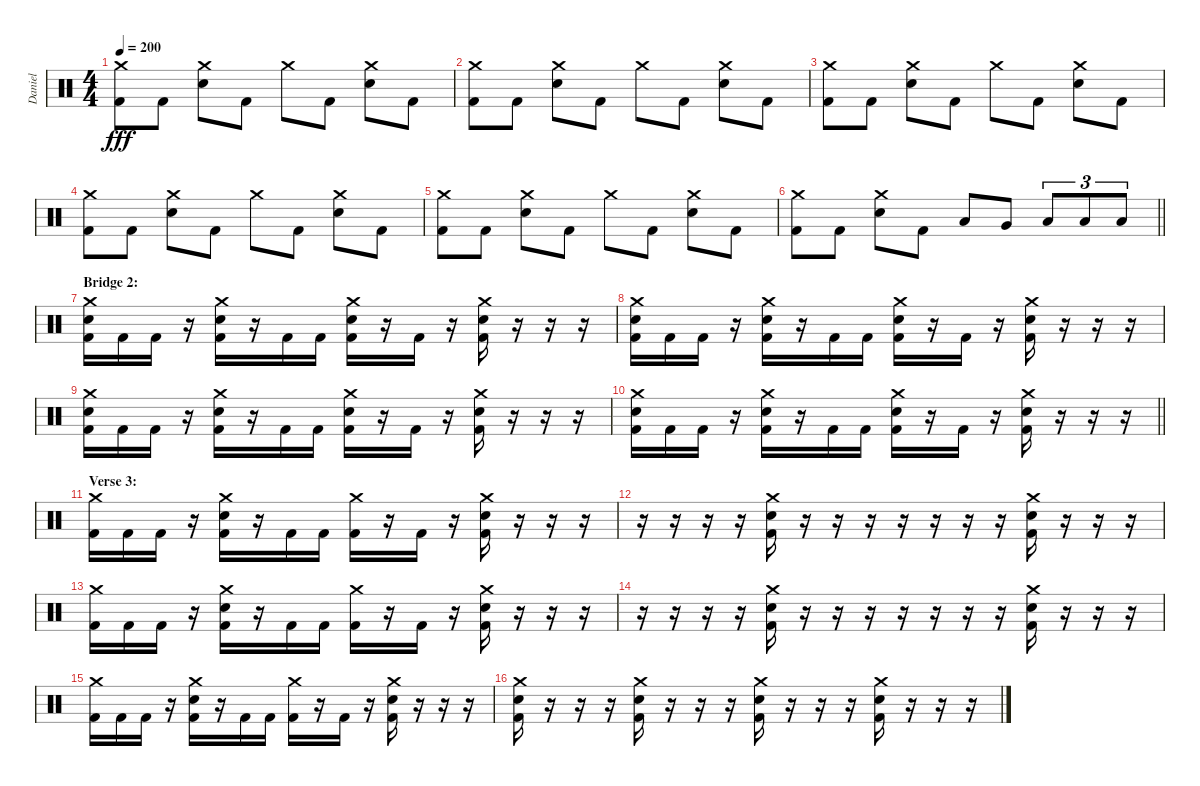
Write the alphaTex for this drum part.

\track ("Daniel" "Daniel") {instrument percussion}
\staff {score}
\articulation defaults
\ts (4 4)
\tempo 200
\clef neutral
\ks c
("Crash medium (hit)" "Kick (hit) 2").8{dy fff} "Kick (hit) 2".8 ("Crash medium (hit)" "Electric Snare (hit)").8 "Kick (hit) 2".8 "Crash medium (hit)".8 "Kick (hit) 2".8 ("Crash medium (hit)" "Electric Snare (hit)").8 "Kick (hit) 2".8 |
("Crash medium (hit)" "Kick (hit) 2").8 "Kick (hit) 2".8 ("Crash medium (hit)" "Electric Snare (hit)").8 "Kick (hit) 2".8 "Crash medium (hit)".8 "Kick (hit) 2".8 ("Crash medium (hit)" "Electric Snare (hit)").8 "Kick (hit) 2".8 |
("Crash medium (hit)" "Kick (hit) 2").8 "Kick (hit) 2".8 ("Crash medium (hit)" "Electric Snare (hit)").8 "Kick (hit) 2".8 "Crash medium (hit)".8 "Kick (hit) 2".8 ("Crash medium (hit)" "Electric Snare (hit)").8 "Kick (hit) 2".8 |
("Crash medium (hit)" "Kick (hit) 2").8 "Kick (hit) 2".8 ("Crash medium (hit)" "Electric Snare (hit)").8 "Kick (hit) 2".8 "Crash medium (hit)".8 "Kick (hit) 2".8 ("Crash medium (hit)" "Electric Snare (hit)").8 "Kick (hit) 2".8 |
("Crash medium (hit)" "Kick (hit) 2").8 "Kick (hit) 2".8 ("Crash medium (hit)" "Electric Snare (hit)").8 "Kick (hit) 2".8 "Crash medium (hit)".8 "Kick (hit) 2".8 ("Crash medium (hit)" "Electric Snare (hit)").8 "Kick (hit) 2".8 |
\barLineRight lightlight
("Crash medium (hit)" "Kick (hit) 2").8 "Kick (hit) 2".8 ("Crash medium (hit)" "Electric Snare (hit)").8 "Kick (hit) 2".8 "Low Tom (hit)".8 "Very Low Tom (hit)".8 "Low Floor Tom (hit)".8{tu (3 2)} "Low Floor Tom (hit)".8{tu (3 2)} "Low Floor Tom (hit)".8{tu (3 2)} |
\section ("" "Bridge 2:")
("Crash medium (hit)" "Electric Snare (hit)" "Kick (hit) 2").16 "Kick (hit) 2".16 "Kick (hit) 2".16 r.16 ("Crash medium (hit)" "Electric Snare (hit)" "Kick (hit) 2").16 r.16 "Kick (hit) 2".16 "Kick (hit) 2".16 ("Crash medium (hit)" "Electric Snare (hit)" "Kick (hit) 2").16 r.16 "Kick (hit) 2".16 r.16 ("Crash medium (hit)" "Electric Snare (hit)" "Kick (hit) 2").16 r.16 r.16 r.16 |
("Crash medium (hit)" "Electric Snare (hit)" "Kick (hit) 2").16 "Kick (hit) 2".16 "Kick (hit) 2".16 r.16 ("Crash medium (hit)" "Electric Snare (hit)" "Kick (hit) 2").16 r.16 "Kick (hit) 2".16 "Kick (hit) 2".16 ("Crash medium (hit)" "Electric Snare (hit)" "Kick (hit) 2").16 r.16 "Kick (hit) 2".16 r.16 ("Crash medium (hit)" "Electric Snare (hit)" "Kick (hit) 2").16 r.16 r.16 r.16 |
("Crash medium (hit)" "Electric Snare (hit)" "Kick (hit) 2").16 "Kick (hit) 2".16 "Kick (hit) 2".16 r.16 ("Crash medium (hit)" "Electric Snare (hit)" "Kick (hit) 2").16 r.16 "Kick (hit) 2".16 "Kick (hit) 2".16 ("Crash medium (hit)" "Electric Snare (hit)" "Kick (hit) 2").16 r.16 "Kick (hit) 2".16 r.16 ("Crash medium (hit)" "Electric Snare (hit)" "Kick (hit) 2").16 r.16 r.16 r.16 |
\barLineRight lightlight
("Crash medium (hit)" "Electric Snare (hit)" "Kick (hit) 2").16 "Kick (hit) 2".16 "Kick (hit) 2".16 r.16 ("Crash medium (hit)" "Electric Snare (hit)" "Kick (hit) 2").16 r.16 "Kick (hit) 2".16 "Kick (hit) 2".16 ("Crash medium (hit)" "Electric Snare (hit)" "Kick (hit) 2").16 r.16 "Kick (hit) 2".16 r.16 ("Crash medium (hit)" "Electric Snare (hit)" "Kick (hit) 2").16 r.16 r.16 r.16 |
\section ("" "Verse 3:")
("Crash medium (hit)" "Kick (hit) 2").16 "Kick (hit) 2".16 "Kick (hit) 2".16 r.16 ("Crash medium (hit)" "Electric Snare (hit)" "Kick (hit) 2").16 r.16 "Kick (hit) 2".16 "Kick (hit) 2".16 ("Crash medium (hit)" "Kick (hit) 2").16 r.16 "Kick (hit) 2".16 r.16 ("Crash medium (hit)" "Electric Snare (hit)" "Kick (hit) 2").16 r.16 r.16 r.16 |
r.16 r.16 r.16 r.16 ("Crash medium (hit)" "Electric Snare (hit)" "Kick (hit) 2").16 r.16 r.16 r.16 r.16 r.16 r.16 r.16 ("Crash medium (hit)" "Electric Snare (hit)" "Kick (hit) 2").16 r.16 r.16 r.16 |
("Crash medium (hit)" "Kick (hit) 2").16 "Kick (hit) 2".16 "Kick (hit) 2".16 r.16 ("Crash medium (hit)" "Electric Snare (hit)" "Kick (hit) 2").16 r.16 "Kick (hit) 2".16 "Kick (hit) 2".16 ("Crash medium (hit)" "Kick (hit) 2").16 r.16 "Kick (hit) 2".16 r.16 ("Crash medium (hit)" "Electric Snare (hit)" "Kick (hit) 2").16 r.16 r.16 r.16 |
r.16 r.16 r.16 r.16 ("Crash medium (hit)" "Electric Snare (hit)" "Kick (hit) 2").16 r.16 r.16 r.16 r.16 r.16 r.16 r.16 ("Crash medium (hit)" "Electric Snare (hit)" "Kick (hit) 2").16 r.16 r.16 r.16 |
("Crash medium (hit)" "Kick (hit) 2").16 "Kick (hit) 2".16 "Kick (hit) 2".16 r.16 ("Crash medium (hit)" "Electric Snare (hit)" "Kick (hit) 2").16 r.16 "Kick (hit) 2".16 "Kick (hit) 2".16 ("Crash medium (hit)" "Kick (hit) 2").16 r.16 "Kick (hit) 2".16 r.16 ("Crash medium (hit)" "Electric Snare (hit)" "Kick (hit) 2").16 r.16 r.16 r.16 |
("Crash medium (hit)" "Electric Snare (hit)" "Kick (hit) 2").16 r.16 r.16 r.16 ("Crash medium (hit)" "Electric Snare (hit)" "Kick (hit) 2").16 r.16 r.16 r.16 ("Crash medium (hit)" "Electric Snare (hit)" "Kick (hit) 2").16 r.16 r.16 r.16 ("Crash medium (hit)" "Electric Snare (hit)" "Kick (hit) 2").16 r.16 r.16 r.16
